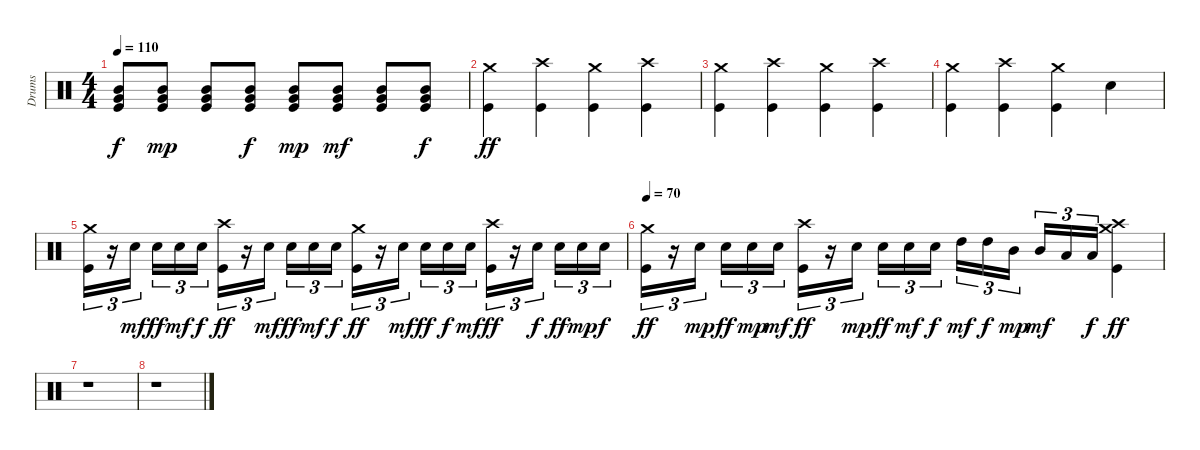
\track ("Drums" "Drums") {instrument percussion}
\staff {score}
\articulation defaults
\ts (4 4)
\tempo 110
\clef neutral
\ks c
("Kick (hit)" "Mid Tom (hit)" "Very Low Tom (hit)").8{dy f} ("Kick (hit)" "Mid Tom (hit)" "Very Low Tom (hit)").8{dy mp} ("Kick (hit)" "Mid Tom (hit)" "Very Low Tom (hit)").8 ("Kick (hit)" "Mid Tom (hit)" "Very Low Tom (hit)").8{dy f} ("Kick (hit)" "Mid Tom (hit)" "Very Low Tom (hit)").8{dy mp} ("Kick (hit)" "Mid Tom (hit)" "Very Low Tom (hit)").8{dy mf} ("Kick (hit)" "Mid Tom (hit)" "Very Low Tom (hit)").8 ("Kick (hit)" "Mid Tom (hit)" "Very Low Tom (hit)").8{dy f} |
("Kick (hit)" "Crash medium (hit)").4{dy ff} ("Kick (hit)" "Crash high (hit)").4 ("Kick (hit)" "Crash medium (hit)").4 ("Kick (hit)" "Crash high (hit)").4 |
("Kick (hit)" "Crash medium (hit)").4 ("Kick (hit)" "Crash high (hit)").4 ("Kick (hit)" "Crash medium (hit)").4 ("Kick (hit)" "Crash high (hit)").4 |
("Kick (hit)" "Crash medium (hit)").4 ("Kick (hit)" "Crash high (hit)").4 ("Kick (hit)" "Crash medium (hit)").4 "Electric Snare (hit)".4 |
("Kick (hit)" "Crash medium (hit)").16{tu (3 2)} r.16{tu (3 2)} "Electric Snare (hit)".16{tu (3 2) dy mf} "Electric Snare (hit)".16{tu (3 2) dy ff} "Electric Snare (hit)".16{tu (3 2) dy mf} "Electric Snare (hit)".16{tu (3 2) dy f} ("Kick (hit)" "Crash high (hit)").16{tu (3 2) dy ff} r.16{tu (3 2)} "Electric Snare (hit)".16{tu (3 2) dy mf} "Electric Snare (hit)".16{tu (3 2) dy ff} "Electric Snare (hit)".16{tu (3 2) dy mf} "Electric Snare (hit)".16{tu (3 2) dy f} ("Kick (hit)" "Crash medium (hit)").16{tu (3 2) dy ff} r.16{tu (3 2)} "Electric Snare (hit)".16{tu (3 2) dy mf} "Electric Snare (hit)".16{tu (3 2) dy ff} "Electric Snare (hit)".16{tu (3 2) dy f} "Electric Snare (hit)".16{tu (3 2) dy mf} ("Kick (hit)" "Crash high (hit)").16{tu (3 2) dy ff} r.16{tu (3 2)} "Electric Snare (hit)".16{tu (3 2) dy f} "Electric Snare (hit)".16{tu (3 2) dy ff} "Electric Snare (hit)".16{tu (3 2) dy mp} "Electric Snare (hit)".16{tu (3 2) dy f} |
\tempo 70
("Kick (hit)" "Crash medium (hit)").16{tu (3 2) dy ff} r.16{tu (3 2)} "Electric Snare (hit)".16{tu (3 2) dy mp} "Electric Snare (hit)".16{tu (3 2) dy ff} "Electric Snare (hit)".16{tu (3 2) dy mp} "Electric Snare (hit)".16{tu (3 2) dy mf} ("Kick (hit)" "Crash high (hit)").16{tu (3 2) dy ff} r.16{tu (3 2)} "Electric Snare (hit)".16{tu (3 2) dy mp} "Electric Snare (hit)".16{tu (3 2) dy ff} "Electric Snare (hit)".16{tu (3 2) dy mf} "Electric Snare (hit)".16{tu (3 2) dy f} "High Tom (hit)".16{tu (3 2) dy mf} "High Tom (hit)".16{tu (3 2) dy f} "Mid Tom (hit)".16{tu (3 2) dy mp} "Mid Tom (hit)".16{tu (3 2) dy mf} "Low Tom (hit)".16{tu (3 2)} "Low Tom (hit)".16{tu (3 2) dy f} ("Kick (hit)" "Crash medium (hit)" "Crash high (hit)").4{dy ff} |
r.1 |
r.1
